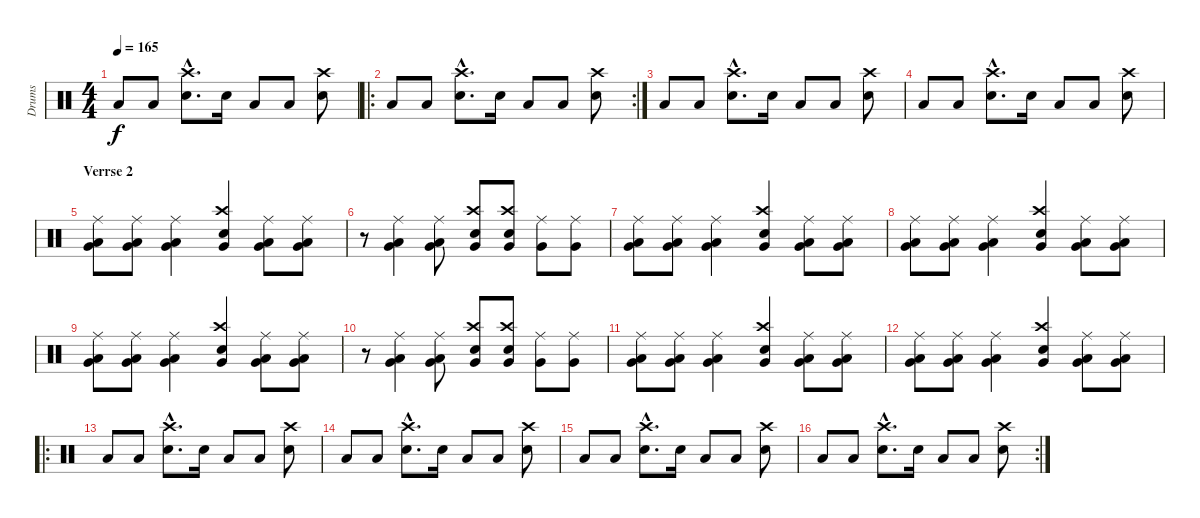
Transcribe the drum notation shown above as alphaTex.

\track ("Drums" "Drums") {instrument percussion}
\staff {score}
\articulation defaults
\ts (4 4)
\tempo 165
\clef neutral
\ks c "Low Tom (hit)".8{dy f} "Low Tom (hit)".8
("Electric Snare (hit)"{hac} "Crash high (hit)"{hac}).8{d} "Electric Snare (hit)".16 "Low Tom (hit)".8 "Low Tom (hit)".8 ("Electric Snare (hit)" "Crash high (hit)").8 |
\ro
\rc 2 "Low Tom (hit)".8 "Low Tom (hit)".8
("Electric Snare (hit)"{hac} "Crash high (hit)"{hac}).8{d} "Electric Snare (hit)".16 "Low Tom (hit)".8 "Low Tom (hit)".8 ("Electric Snare (hit)" "Crash high (hit)").8 |
"Low Tom (hit)".8 "Low Tom (hit)".8 ("Electric Snare (hit)"{hac} "Crash high (hit)"{hac}).8{d} "Electric Snare (hit)".16 "Low Tom (hit)".8 "Low Tom (hit)".8 ("Electric Snare (hit)" "Crash high (hit)").8 |
"Low Tom (hit)".8 "Low Tom (hit)".8 ("Electric Snare (hit)"{hac} "Crash high (hit)"{hac}).8{d} "Electric Snare (hit)".16 "Low Tom (hit)".8 "Low Tom (hit)".8 ("Electric Snare (hit)" "Crash high (hit)").8 |
\section ("" "Verrse 2")
("Ride (middle)" "Low Floor Tom (hit)" "Very Low Tom (hit)").8 ("Ride (middle)" "Low Floor Tom (hit)" "Very Low Tom (hit)").8 ("Ride (middle)" "Low Floor Tom (hit)" "Very Low Tom (hit)").4 ("Crash high (hit)" "Very Low Tom (hit)" "Electric Snare (hit)").4 ("Ride (middle)" "Low Floor Tom (hit)" "Very Low Tom (hit)").8 ("Ride (middle)" "Low Floor Tom (hit)" "Very Low Tom (hit)").8 |
r.8 ("Ride (middle)" "Low Floor Tom (hit)" "Very Low Tom (hit)").4 ("Ride (middle)" "Low Floor Tom (hit)" "Very Low Tom (hit)").8 ("Crash high (hit)" "Very Low Tom (hit)" "Electric Snare (hit)").8 ("Crash high (hit)" "Very Low Tom (hit)" "Electric Snare (hit)").8 ("Ride (middle)" "Very Low Tom (hit)").8 ("Ride (middle)" "Very Low Tom (hit)").8 |
("Ride (middle)" "Low Floor Tom (hit)" "Very Low Tom (hit)").8 ("Ride (middle)" "Low Floor Tom (hit)" "Very Low Tom (hit)").8 ("Ride (middle)" "Low Floor Tom (hit)" "Very Low Tom (hit)").4 ("Crash high (hit)" "Very Low Tom (hit)" "Electric Snare (hit)").4 ("Ride (middle)" "Low Floor Tom (hit)" "Very Low Tom (hit)").8 ("Ride (middle)" "Low Floor Tom (hit)" "Very Low Tom (hit)").8 |
("Ride (middle)" "Low Floor Tom (hit)" "Very Low Tom (hit)").8 ("Ride (middle)" "Low Floor Tom (hit)" "Very Low Tom (hit)").8 ("Ride (middle)" "Low Floor Tom (hit)" "Very Low Tom (hit)").4 ("Crash high (hit)" "Very Low Tom (hit)" "Electric Snare (hit)").4 ("Ride (middle)" "Low Floor Tom (hit)" "Very Low Tom (hit)").8 ("Ride (middle)" "Low Floor Tom (hit)" "Very Low Tom (hit)").8 |
("Ride (middle)" "Low Floor Tom (hit)" "Very Low Tom (hit)").8 ("Ride (middle)" "Low Floor Tom (hit)" "Very Low Tom (hit)").8 ("Ride (middle)" "Low Floor Tom (hit)" "Very Low Tom (hit)").4 ("Crash high (hit)" "Very Low Tom (hit)" "Electric Snare (hit)").4 ("Ride (middle)" "Low Floor Tom (hit)" "Very Low Tom (hit)").8 ("Ride (middle)" "Low Floor Tom (hit)" "Very Low Tom (hit)").8 |
r.8 ("Ride (middle)" "Low Floor Tom (hit)" "Very Low Tom (hit)").4 ("Ride (middle)" "Low Floor Tom (hit)" "Very Low Tom (hit)").8 ("Crash high (hit)" "Very Low Tom (hit)" "Electric Snare (hit)").8 ("Crash high (hit)" "Very Low Tom (hit)" "Electric Snare (hit)").8 ("Ride (middle)" "Very Low Tom (hit)").8 ("Ride (middle)" "Very Low Tom (hit)").8 |
("Ride (middle)" "Low Floor Tom (hit)" "Very Low Tom (hit)").8 ("Ride (middle)" "Low Floor Tom (hit)" "Very Low Tom (hit)").8 ("Ride (middle)" "Low Floor Tom (hit)" "Very Low Tom (hit)").4 ("Crash high (hit)" "Very Low Tom (hit)" "Electric Snare (hit)").4 ("Ride (middle)" "Low Floor Tom (hit)" "Very Low Tom (hit)").8 ("Ride (middle)" "Low Floor Tom (hit)" "Very Low Tom (hit)").8 |
("Ride (middle)" "Low Floor Tom (hit)" "Very Low Tom (hit)").8 ("Ride (middle)" "Low Floor Tom (hit)" "Very Low Tom (hit)").8 ("Ride (middle)" "Low Floor Tom (hit)" "Very Low Tom (hit)").4 ("Crash high (hit)" "Very Low Tom (hit)" "Electric Snare (hit)").4 ("Ride (middle)" "Low Floor Tom (hit)" "Very Low Tom (hit)").8 ("Ride (middle)" "Low Floor Tom (hit)" "Very Low Tom (hit)").8 |
\ro "Low Tom (hit)".8 "Low Tom (hit)".8
("Electric Snare (hit)"{hac} "Crash high (hit)"{hac}).8{d} "Electric Snare (hit)".16 "Low Tom (hit)".8 "Low Tom (hit)".8 ("Electric Snare (hit)" "Crash high (hit)").8 |
"Low Tom (hit)".8 "Low Tom (hit)".8 ("Electric Snare (hit)"{hac} "Crash high (hit)"{hac}).8{d} "Electric Snare (hit)".16 "Low Tom (hit)".8 "Low Tom (hit)".8 ("Electric Snare (hit)" "Crash high (hit)").8 |
"Low Tom (hit)".8 "Low Tom (hit)".8 ("Electric Snare (hit)"{hac} "Crash high (hit)"{hac}).8{d} "Electric Snare (hit)".16 "Low Tom (hit)".8 "Low Tom (hit)".8 ("Electric Snare (hit)" "Crash high (hit)").8 |
\rc 2 "Low Tom (hit)".8 "Low Tom (hit)".8
("Electric Snare (hit)"{hac} "Crash high (hit)"{hac}).8{d} "Electric Snare (hit)".16 "Low Tom (hit)".8 "Low Tom (hit)".8 ("Electric Snare (hit)" "Crash high (hit)").8
